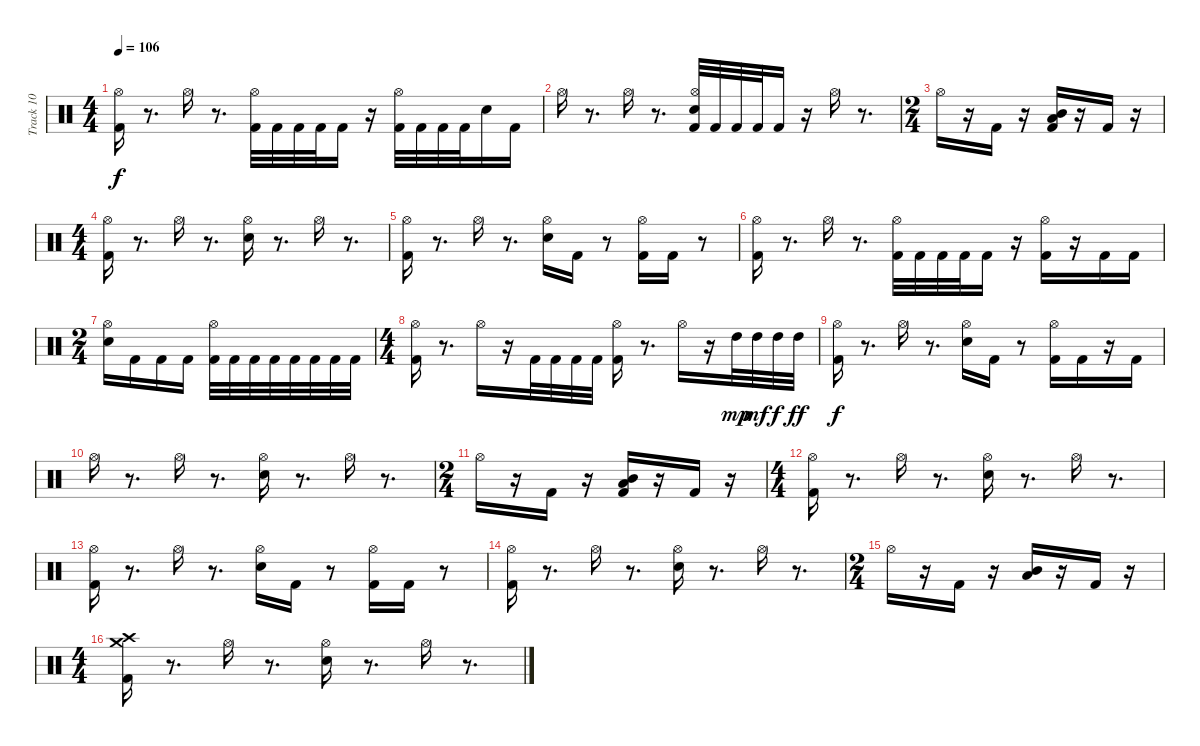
\track ("Track 10" "Track 10") {instrument percussion}
\staff {score}
\articulation defaults
\ts (4 4)
\tempo 106
\clef neutral
\ks c
("Kick (hit) 2" "Hi-Hat (open)").16{dy f} r.8{d} "Hi-Hat (open)".16 r.8{d} ("Kick (hit) 2" "Hi-Hat (open)").32 "Kick (hit) 2".32 "Kick (hit) 2".32 "Kick (hit) 2".32 "Kick (hit) 2".16 r.16 ("Kick (hit) 2" "Hi-Hat (open)").32 "Kick (hit) 2".32 "Kick (hit) 2".32 "Kick (hit) 2".32 "Snare (hit) 2".16 "Kick (hit) 2".16 |
"Hi-Hat (open)".16 r.8{d} "Hi-Hat (open)".16 r.8{d} ("Kick (hit) 2" "Snare (hit) 2" "Hi-Hat (open)").32 "Kick (hit) 2".32 "Kick (hit) 2".32 "Kick (hit) 2".32 "Kick (hit) 2".16 r.16 "Hi-Hat (open)".16 r.8{d} |
\ts (2 4)
"Hi-Hat (open)".16 r.16 "Kick (hit) 2".16 r.16 ("Kick (hit) 2" "Low Floor Tom (hit)" "Mid Tom (hit)").16 r.16 "Kick (hit) 2".16 r.16 |
\ts (4 4)
("Kick (hit) 2" "Hi-Hat (open)").16 r.8{d} "Hi-Hat (open)".16 r.8{d} ("Snare (hit) 2" "Hi-Hat (open)").16 r.8{d} "Hi-Hat (open)".16 r.8{d} |
("Kick (hit) 2" "Hi-Hat (open)").16 r.8{d} "Hi-Hat (open)".16 r.8{d} ("Snare (hit) 2" "Hi-Hat (open)").16 "Kick (hit) 2".16 r.8 ("Kick (hit) 2" "Hi-Hat (open)").16 "Kick (hit) 2".16 r.8 |
("Kick (hit) 2" "Hi-Hat (open)").16 r.8{d} "Hi-Hat (open)".16 r.8{d} ("Kick (hit) 2" "Hi-Hat (open)").32 "Kick (hit) 2".32 "Kick (hit) 2".32 "Kick (hit) 2".32 "Kick (hit) 2".16 r.16 ("Kick (hit) 2" "Hi-Hat (open)").16 r.16 "Kick (hit) 2".16 "Kick (hit) 2".16 |
\ts (2 4)
("Snare (hit) 2" "Hi-Hat (open)").16 "Kick (hit) 2".16 "Kick (hit) 2".16 "Kick (hit) 2".16 ("Kick (hit) 2" "Hi-Hat (open)").32 "Kick (hit) 2".32 "Kick (hit) 2".32 "Kick (hit) 2".32 "Kick (hit) 2".32 "Kick (hit) 2".32 "Kick (hit) 2".32 "Kick (hit) 2".32 |
\ts (4 4)
("Kick (hit) 2" "Hi-Hat (open)").16 r.8{d} "Hi-Hat (open)".16 r.16 "Kick (hit) 2".32 "Kick (hit) 2".32 "Kick (hit) 2".32 "Kick (hit) 2".32 ("Kick (hit) 2" "Hi-Hat (open)").16 r.8{d} "Hi-Hat (open)".16 r.16 "High Tom (hit)".32{dy mp} "High Tom (hit)".32{dy mf} "High Tom (hit)".32{dy f} "High Tom (hit)".32{dy ff} |
("Kick (hit) 2" "Hi-Hat (open)").16{dy f} r.8{d} "Hi-Hat (open)".16 r.8{d} ("Snare (hit) 2" "Hi-Hat (open)").16 "Kick (hit) 2".16 r.8 ("Kick (hit) 2" "Hi-Hat (open)").16 "Kick (hit) 2".16 r.16 "Kick (hit) 2".16 |
"Hi-Hat (open)".16 r.8{d} "Hi-Hat (open)".16 r.8{d} ("Snare (hit) 2" "Hi-Hat (open)").16 r.8{d} "Hi-Hat (open)".16 r.8{d} |
\ts (2 4)
"Hi-Hat (open)".16 r.16 "Kick (hit) 2".16 r.16 ("Kick (hit) 2" "Low Floor Tom (hit)" "Mid Tom (hit)").16 r.16 "Kick (hit) 2".16 r.16 |
\ts (4 4)
("Kick (hit) 2" "Hi-Hat (open)").16 r.8{d} "Hi-Hat (open)".16 r.8{d} ("Snare (hit) 2" "Hi-Hat (open)").16 r.8{d} "Hi-Hat (open)".16 r.8{d} |
("Kick (hit) 2" "Hi-Hat (open)").16 r.8{d} "Hi-Hat (open)".16 r.8{d} ("Snare (hit) 2" "Hi-Hat (open)").16 "Kick (hit) 2".16 r.8 ("Kick (hit) 2" "Hi-Hat (open)").16 "Kick (hit) 2".16 r.8 |
("Kick (hit) 2" "Hi-Hat (open)").16 r.8{d} "Hi-Hat (open)".16 r.8{d} ("Snare (hit) 2" "Hi-Hat (open)").16 r.8{d} "Hi-Hat (open)".16 r.8{d} |
\ts (2 4)
"Hi-Hat (open)".16 r.16 "Kick (hit) 2".16 r.16 ("Low Floor Tom (hit)" "Mid Tom (hit)").16 r.16 "Kick (hit) 2".16 r.16 |
\ts (4 4)
("Kick (hit) 2" "Crash high (hit)" "Crash medium (hit)").16 r.8{d} "Hi-Hat (open)".16 r.8{d} ("Snare (hit) 2" "Hi-Hat (open)").16 r.8{d} "Hi-Hat (open)".16 r.8{d}
